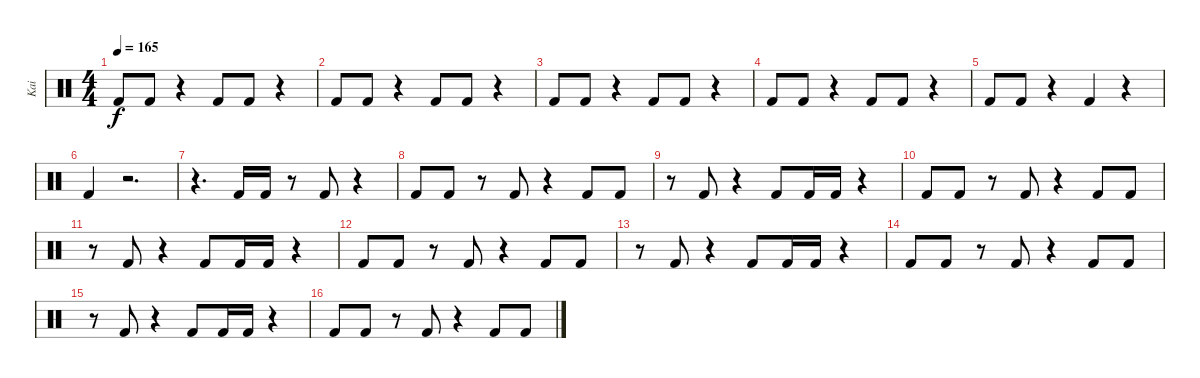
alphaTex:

\track ("Kai" "Kai") {instrument percussion}
\staff {score}
\articulation defaults
\ts (4 4)
\tempo 165
\clef neutral
\ks c "Kick (hit) 2".8{dy f} "Kick (hit) 2".8
r.4 "Kick (hit) 2".8 "Kick (hit) 2".8 r.4 |
"Kick (hit) 2".8 "Kick (hit) 2".8 r.4 "Kick (hit) 2".8 "Kick (hit) 2".8 r.4 |
"Kick (hit) 2".8 "Kick (hit) 2".8 r.4 "Kick (hit) 2".8 "Kick (hit) 2".8 r.4 |
"Kick (hit) 2".8 "Kick (hit) 2".8 r.4 "Kick (hit) 2".8 "Kick (hit) 2".8 r.4 |
"Kick (hit) 2".8 "Kick (hit) 2".8 r.4 "Kick (hit) 2".4 r.4 |
"Kick (hit) 2".4 r.2{d} |
r.4{d} "Kick (hit) 2".16 "Kick (hit) 2".16 r.8 "Kick (hit) 2".8 r.4 |
"Kick (hit) 2".8 "Kick (hit) 2".8 r.8 "Kick (hit) 2".8 r.4 "Kick (hit) 2".8 "Kick (hit) 2".8 |
r.8 "Kick (hit) 2".8 r.4 "Kick (hit) 2".8 "Kick (hit) 2".16 "Kick (hit) 2".16 r.4 |
"Kick (hit) 2".8 "Kick (hit) 2".8 r.8 "Kick (hit) 2".8 r.4 "Kick (hit) 2".8 "Kick (hit) 2".8 |
r.8 "Kick (hit) 2".8 r.4 "Kick (hit) 2".8 "Kick (hit) 2".16 "Kick (hit) 2".16 r.4 |
"Kick (hit) 2".8 "Kick (hit) 2".8 r.8 "Kick (hit) 2".8 r.4 "Kick (hit) 2".8 "Kick (hit) 2".8 |
r.8 "Kick (hit) 2".8 r.4 "Kick (hit) 2".8 "Kick (hit) 2".16 "Kick (hit) 2".16 r.4 |
"Kick (hit) 2".8 "Kick (hit) 2".8 r.8 "Kick (hit) 2".8 r.4 "Kick (hit) 2".8 "Kick (hit) 2".8 |
r.8 "Kick (hit) 2".8 r.4 "Kick (hit) 2".8 "Kick (hit) 2".16 "Kick (hit) 2".16 r.4 |
"Kick (hit) 2".8 "Kick (hit) 2".8 r.8 "Kick (hit) 2".8 r.4 "Kick (hit) 2".8 "Kick (hit) 2".8
